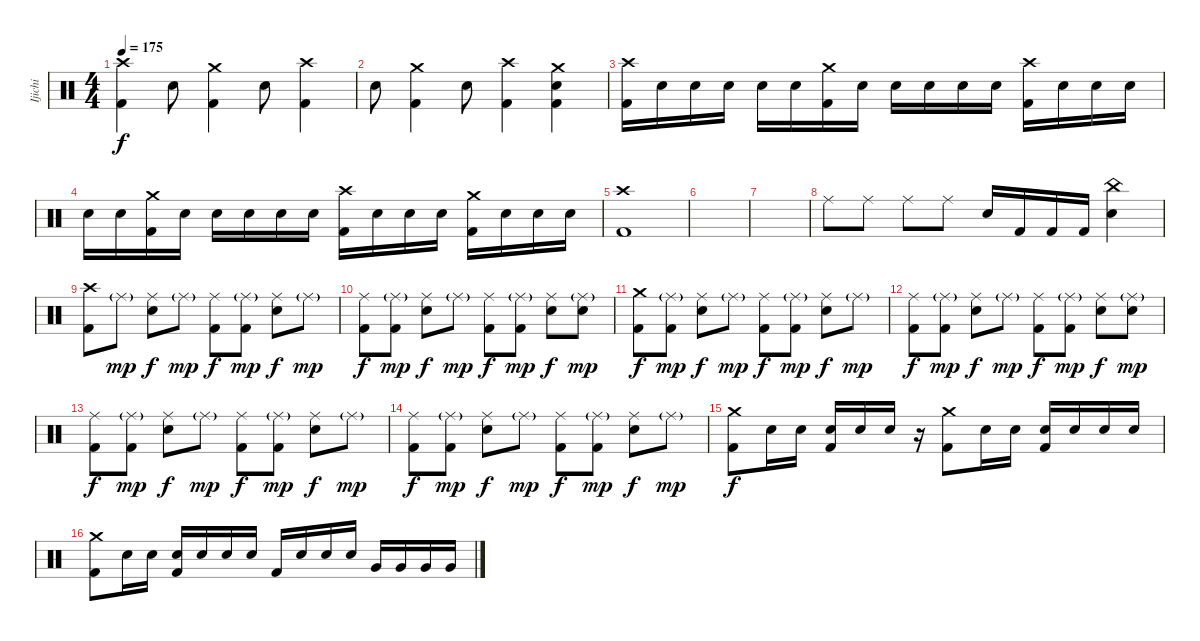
\track ("Ijichi" "Ijichi") {instrument percussion}
\staff {score}
\articulation defaults
\ts (4 4)
\tempo 175
\clef neutral
\ks c
("Crash high (hit)" "Kick (hit) 2").4{dy f} "Electric Snare (hit)".8 ("Crash medium (hit)" "Kick (hit) 2").4 "Electric Snare (hit)".8 ("Crash high (hit)" "Kick (hit) 2").4 |
"Electric Snare (hit)".8 ("Crash medium (hit)" "Kick (hit) 2").4 "Electric Snare (hit)".8 ("Crash high (hit)" "Kick (hit) 2").4 ("Crash medium (hit)" "Electric Snare (hit)" "Kick (hit) 2").4 |
("Crash high (hit)" "Kick (hit) 2").16 "Electric Snare (hit)".16 "Electric Snare (hit)".16 "Electric Snare (hit)".16 "Electric Snare (hit)".16 "Electric Snare (hit)".16 ("Crash medium (hit)" "Kick (hit) 2").16 "Electric Snare (hit)".16 "Electric Snare (hit)".16 "Electric Snare (hit)".16 "Electric Snare (hit)".16 "Electric Snare (hit)".16 ("Crash high (hit)" "Kick (hit) 2").16 "Electric Snare (hit)".16 "Electric Snare (hit)".16 "Electric Snare (hit)".16 |
"Electric Snare (hit)".16 "Electric Snare (hit)".16 ("Crash medium (hit)" "Kick (hit) 2").16 "Electric Snare (hit)".16 "Electric Snare (hit)".16 "Electric Snare (hit)".16 "Electric Snare (hit)".16 "Electric Snare (hit)".16 ("Crash high (hit)" "Kick (hit) 2").16 "Electric Snare (hit)".16 "Electric Snare (hit)".16 "Electric Snare (hit)".16 ("Crash medium (hit)" "Kick (hit) 2").16 "Electric Snare (hit)".16 "Electric Snare (hit)".16 "Electric Snare (hit)".16 |
("Crash high (hit)" "Kick (hit) 2").1 |
|
|
"Ride (middle)".8 "Ride (middle)".8 "Ride (middle)".8 "Ride (middle)".8 "Electric Snare (hit)".16 "Kick (hit) 2".16 "Kick (hit) 2".16 "Kick (hit) 2".16 ("China (hit)" "Electric Snare (hit)").4 |
("Crash high (hit)" "Kick (hit) 2").8 "Ride (middle)"{g}.8{dy mp} ("Ride (middle)" "Electric Snare (hit)").8{dy f} "Ride (middle)"{g}.8{dy mp} ("Ride (middle)" "Kick (hit) 2").8{dy f} ("Ride (middle)"{g} "Kick (hit) 2").8{dy mp} ("Ride (middle)" "Electric Snare (hit)").8{dy f} "Ride (middle)"{g}.8{dy mp} |
("Ride (middle)" "Kick (hit) 2").8{dy f} ("Ride (middle)"{g} "Kick (hit) 2").8{dy mp} ("Ride (middle)" "Electric Snare (hit)").8{dy f} "Ride (middle)"{g}.8{dy mp} ("Ride (middle)" "Kick (hit) 2").8{dy f} ("Ride (middle)"{g} "Kick (hit) 2").8{dy mp} ("Ride (middle)" "Electric Snare (hit)").8{dy f} ("Ride (middle)"{g} "Electric Snare (hit)").8{dy mp} |
("Crash medium (hit)" "Kick (hit) 2").8{dy f} ("Ride (middle)"{g} "Kick (hit) 2").8{dy mp} ("Ride (middle)" "Electric Snare (hit)").8{dy f} "Ride (middle)"{g}.8{dy mp} ("Ride (middle)" "Kick (hit) 2").8{dy f} ("Ride (middle)"{g} "Kick (hit) 2").8{dy mp} ("Ride (middle)" "Electric Snare (hit)").8{dy f} "Ride (middle)"{g}.8{dy mp} |
("Ride (middle)" "Kick (hit) 2").8{dy f} ("Ride (middle)"{g} "Kick (hit) 2").8{dy mp} ("Ride (middle)" "Electric Snare (hit)").8{dy f} "Ride (middle)"{g}.8{dy mp} ("Ride (middle)" "Kick (hit) 2").8{dy f} ("Ride (middle)"{g} "Kick (hit) 2").8{dy mp} ("Ride (middle)" "Electric Snare (hit)").8{dy f} ("Ride (middle)"{g} "Electric Snare (hit)").8{dy mp} |
("Ride (middle)" "Kick (hit) 2").8{dy f} ("Ride (middle)"{g} "Kick (hit) 2").8{dy mp} ("Ride (middle)" "Electric Snare (hit)").8{dy f} "Ride (middle)"{g}.8{dy mp} ("Ride (middle)" "Kick (hit) 2").8{dy f} ("Ride (middle)"{g} "Kick (hit) 2").8{dy mp} ("Ride (middle)" "Electric Snare (hit)").8{dy f} "Ride (middle)"{g}.8{dy mp} |
("Ride (middle)" "Kick (hit) 2").8{dy f} ("Ride (middle)"{g} "Kick (hit) 2").8{dy mp} ("Ride (middle)" "Electric Snare (hit)").8{dy f} "Ride (middle)"{g}.8{dy mp} ("Ride (middle)" "Kick (hit) 2").8{dy f} ("Ride (middle)"{g} "Kick (hit) 2").8{dy mp} ("Ride (middle)" "Electric Snare (hit)").8{dy f} "Ride (middle)"{g}.8{dy mp} |
("Crash medium (hit)" "Kick (hit) 2").8{dy f} "Electric Snare (hit)".16 "Electric Snare (hit)".16 ("Electric Snare (hit)" "Kick (hit) 2").16 "Electric Snare (hit)".16 "Electric Snare (hit)".16 r.16 ("Crash medium (hit)" "Kick (hit) 2").8 "Electric Snare (hit)".16 "Electric Snare (hit)".16 ("Electric Snare (hit)" "Kick (hit) 2").16 "Electric Snare (hit)".16 "Electric Snare (hit)".16 "Electric Snare (hit)".16 |
("Crash medium (hit)" "Kick (hit) 2").8 "Electric Snare (hit)".16 "Electric Snare (hit)".16 ("Electric Snare (hit)" "Kick (hit) 2").16 "Electric Snare (hit)".16 "Electric Snare (hit)".16 "Electric Snare (hit)".16 "Kick (hit) 2".16 "Electric Snare (hit)".16 "Electric Snare (hit)".16 "Electric Snare (hit)".16 "Very Low Tom (hit)".16 "Very Low Tom (hit)".16 "Very Low Tom (hit)".16 "Very Low Tom (hit)".16
